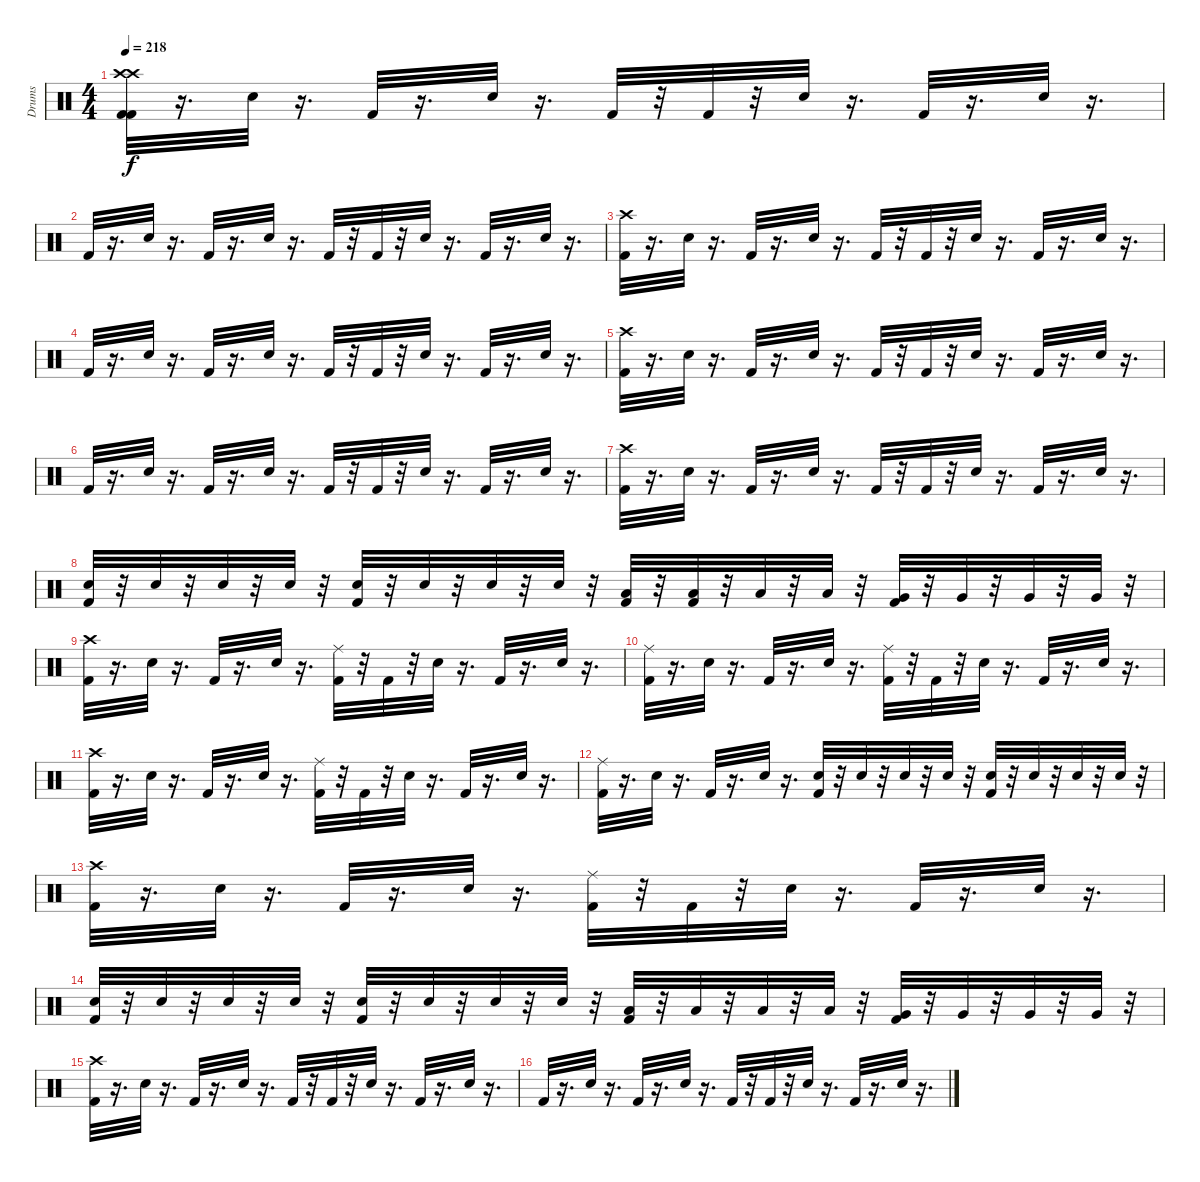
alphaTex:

\track ("Drums" "Drums") {instrument percussion}
\staff {score}
\articulation defaults
\ts (4 4)
\tempo 218
\clef neutral
\ks c
("Crash high (hit)" "Kick (hit) 2" "Kick (hit) 2" "Crash high (hit)").32{dy f} r.16{d} "Electric Snare (hit)".32 r.16{d} "Kick (hit) 2".32 r.16{d} "Electric Snare (hit)".32 r.16{d} "Kick (hit) 2".32 r.32 "Kick (hit) 2".32 r.32 "Electric Snare (hit)".32 r.16{d} "Kick (hit) 2".32 r.16{d} "Electric Snare (hit)".32 r.16{d} |
"Kick (hit) 2".32 r.16{d} "Electric Snare (hit)".32 r.16{d} "Kick (hit) 2".32 r.16{d} "Electric Snare (hit)".32 r.16{d} "Kick (hit) 2".32 r.32 "Kick (hit) 2".32 r.32 "Electric Snare (hit)".32 r.16{d} "Kick (hit) 2".32 r.16{d} "Electric Snare (hit)".32 r.16{d} |
("Kick (hit) 2" "Crash high (hit)").32 r.16{d} "Electric Snare (hit)".32 r.16{d} "Kick (hit) 2".32 r.16{d} "Electric Snare (hit)".32 r.16{d} "Kick (hit) 2".32 r.32 "Kick (hit) 2".32 r.32 "Electric Snare (hit)".32 r.16{d} "Kick (hit) 2".32 r.16{d} "Electric Snare (hit)".32 r.16{d} |
"Kick (hit) 2".32 r.16{d} "Electric Snare (hit)".32 r.16{d} "Kick (hit) 2".32 r.16{d} "Electric Snare (hit)".32 r.16{d} "Kick (hit) 2".32 r.32 "Kick (hit) 2".32 r.32 "Electric Snare (hit)".32 r.16{d} "Kick (hit) 2".32 r.16{d} "Electric Snare (hit)".32 r.16{d} |
("Kick (hit) 2" "Crash high (hit)").32 r.16{d} "Electric Snare (hit)".32 r.16{d} "Kick (hit) 2".32 r.16{d} "Electric Snare (hit)".32 r.16{d} "Kick (hit) 2".32 r.32 "Kick (hit) 2".32 r.32 "Electric Snare (hit)".32 r.16{d} "Kick (hit) 2".32 r.16{d} "Electric Snare (hit)".32 r.16{d} |
"Kick (hit) 2".32 r.16{d} "Electric Snare (hit)".32 r.16{d} "Kick (hit) 2".32 r.16{d} "Electric Snare (hit)".32 r.16{d} "Kick (hit) 2".32 r.32 "Kick (hit) 2".32 r.32 "Electric Snare (hit)".32 r.16{d} "Kick (hit) 2".32 r.16{d} "Electric Snare (hit)".32 r.16{d} |
("Kick (hit) 2" "Crash high (hit)").32 r.16{d} "Electric Snare (hit)".32 r.16{d} "Kick (hit) 2".32 r.16{d} "Electric Snare (hit)".32 r.16{d} "Kick (hit) 2".32 r.32 "Kick (hit) 2".32 r.32 "Electric Snare (hit)".32 r.16{d} "Kick (hit) 2".32 r.16{d} "Electric Snare (hit)".32 r.16{d} |
("Kick (hit) 2" "Electric Snare (hit)").32 r.32 "Electric Snare (hit)".32 r.32 "Electric Snare (hit)".32 r.32 "Electric Snare (hit)".32 r.32 ("Kick (hit) 2" "Electric Snare (hit)").32 r.32 "Electric Snare (hit)".32 r.32 "Electric Snare (hit)".32 r.32 "Electric Snare (hit)".32 r.32 ("Kick (hit) 2" "Low Tom (hit)").32 r.32 ("Kick (hit) 2" "Low Tom (hit)").32 r.32 "Low Tom (hit)".32 r.32 "Low Tom (hit)".32 r.32 ("Kick (hit) 2" "Very Low Tom (hit)").32 r.32 "Very Low Tom (hit)".32 r.32 "Very Low Tom (hit)".32 r.32 "Very Low Tom (hit)".32 r.32 |
("Kick (hit) 2" "Crash high (hit)").32 r.16{d} "Electric Snare (hit)".32 r.16{d} "Kick (hit) 2".32 r.16{d} "Electric Snare (hit)".32 r.16{d} ("Kick (hit) 2" "Ride (middle)").32 r.32 "Kick (hit) 2".32 r.32 "Electric Snare (hit)".32 r.16{d} "Kick (hit) 2".32 r.16{d} "Electric Snare (hit)".32 r.16{d} |
("Kick (hit) 2" "Ride (middle)").32 r.16{d} "Electric Snare (hit)".32 r.16{d} "Kick (hit) 2".32 r.16{d} "Electric Snare (hit)".32 r.16{d} ("Kick (hit) 2" "Ride (middle)").32 r.32 "Kick (hit) 2".32 r.32 "Electric Snare (hit)".32 r.16{d} "Kick (hit) 2".32 r.16{d} "Electric Snare (hit)".32 r.16{d} |
("Kick (hit) 2" "Crash high (hit)").32 r.16{d} "Electric Snare (hit)".32 r.16{d} "Kick (hit) 2".32 r.16{d} "Electric Snare (hit)".32 r.16{d} ("Kick (hit) 2" "Ride (middle)").32 r.32 "Kick (hit) 2".32 r.32 "Electric Snare (hit)".32 r.16{d} "Kick (hit) 2".32 r.16{d} "Electric Snare (hit)".32 r.16{d} |
("Kick (hit) 2" "Ride (middle)").32 r.16{d} "Electric Snare (hit)".32 r.16{d} "Kick (hit) 2".32 r.16{d} "Electric Snare (hit)".32 r.16{d} ("Kick (hit) 2" "Electric Snare (hit)").32 r.32 "Electric Snare (hit)".32 r.32 "Electric Snare (hit)".32 r.32 "Electric Snare (hit)".32 r.32 ("Kick (hit) 2" "Electric Snare (hit)").32 r.32 "Electric Snare (hit)".32 r.32 "Electric Snare (hit)".32 r.32 "Electric Snare (hit)".32 r.32 |
("Kick (hit) 2" "Crash high (hit)").32 r.16{d} "Electric Snare (hit)".32 r.16{d} "Kick (hit) 2".32 r.16{d} "Electric Snare (hit)".32 r.16{d} ("Kick (hit) 2" "Ride (middle)").32 r.32 "Kick (hit) 2".32 r.32 "Electric Snare (hit)".32 r.16{d} "Kick (hit) 2".32 r.16{d} "Electric Snare (hit)".32 r.16{d} |
("Kick (hit) 2" "Electric Snare (hit)").32 r.32 "Electric Snare (hit)".32 r.32 "Electric Snare (hit)".32 r.32 "Electric Snare (hit)".32 r.32 ("Kick (hit) 2" "Electric Snare (hit)").32 r.32 "Electric Snare (hit)".32 r.32 "Electric Snare (hit)".32 r.32 "Electric Snare (hit)".32 r.32 ("Kick (hit) 2" "Low Tom (hit)").32 r.32 "Low Tom (hit)".32 r.32 "Low Tom (hit)".32 r.32 "Low Tom (hit)".32 r.32 ("Kick (hit) 2" "Very Low Tom (hit)").32 r.32 "Very Low Tom (hit)".32 r.32 "Very Low Tom (hit)".32 r.32 "Very Low Tom (hit)".32 r.32 |
("Kick (hit) 2" "Crash high (hit)").32 r.16{d} "Electric Snare (hit)".32 r.16{d} "Kick (hit) 2".32 r.16{d} "Electric Snare (hit)".32 r.16{d} "Kick (hit) 2".32 r.32 "Kick (hit) 2".32 r.32 "Electric Snare (hit)".32 r.16{d} "Kick (hit) 2".32 r.16{d} "Electric Snare (hit)".32 r.16{d} |
"Kick (hit) 2".32 r.16{d} "Electric Snare (hit)".32 r.16{d} "Kick (hit) 2".32 r.16{d} "Electric Snare (hit)".32 r.16{d} "Kick (hit) 2".32 r.32 "Kick (hit) 2".32 r.32 "Electric Snare (hit)".32 r.16{d} "Kick (hit) 2".32 r.16{d} "Electric Snare (hit)".32 r.16{d}
